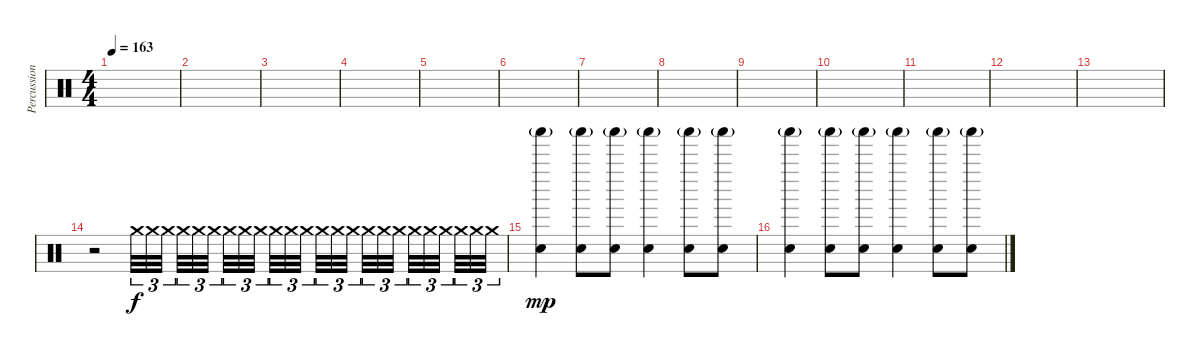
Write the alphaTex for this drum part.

\track ("Percussion" "Percussion") {instrument percussion}
\staff {score}
\articulation defaults
\ts (4 4)
\tempo 163
\clef neutral
\ks c
|
|
|
|
|
|
|
|
|
|
|
|
|
r.2 "Crash medium (hit)".32{tu (3 2) dy f} "Crash medium (hit)".32{tu (3 2)} "Crash medium (hit)".32{tu (3 2)} "Crash medium (hit)".32{tu (3 2)} "Crash medium (hit)".32{tu (3 2)} "Crash medium (hit)".32{tu (3 2)} "Crash medium (hit)".32{tu (3 2)} "Crash medium (hit)".32{tu (3 2)} "Crash medium (hit)".32{tu (3 2)} "Crash medium (hit)".32{tu (3 2)} "Crash medium (hit)".32{tu (3 2)} "Crash medium (hit)".32{tu (3 2)} "Crash medium (hit)".32{tu (3 2)} "Crash medium (hit)".32{tu (3 2)} "Crash medium (hit)".32{tu (3 2)} "Crash medium (hit)".32{tu (3 2)} "Crash medium (hit)".32{tu (3 2)} "Crash medium (hit)".32{tu (3 2)} "Crash medium (hit)".32{tu (3 2)} "Crash medium (hit)".32{tu (3 2)} "Crash medium (hit)".32{tu (3 2)} "Crash medium (hit)".32{tu (3 2)} "Crash medium (hit)".32{tu (3 2)} "Crash medium (hit)".32{tu (3 2)} |
("Shaker (hit)"{g} "Snare (hit) 2").4{dy mp} ("Shaker (hit)"{g} "Snare (hit) 2").8 ("Shaker (hit)"{g} "Snare (hit) 2").8 ("Shaker (hit)"{g} "Snare (hit) 2").4 ("Shaker (hit)"{g} "Snare (hit) 2").8 ("Shaker (hit)"{g} "Snare (hit) 2").8 |
("Shaker (hit)"{g} "Snare (hit) 2").4 ("Shaker (hit)"{g} "Snare (hit) 2").8 ("Shaker (hit)"{g} "Snare (hit) 2").8 ("Shaker (hit)"{g} "Snare (hit) 2").4 ("Shaker (hit)"{g} "Snare (hit) 2").8 ("Shaker (hit)"{g} "Snare (hit) 2").8
